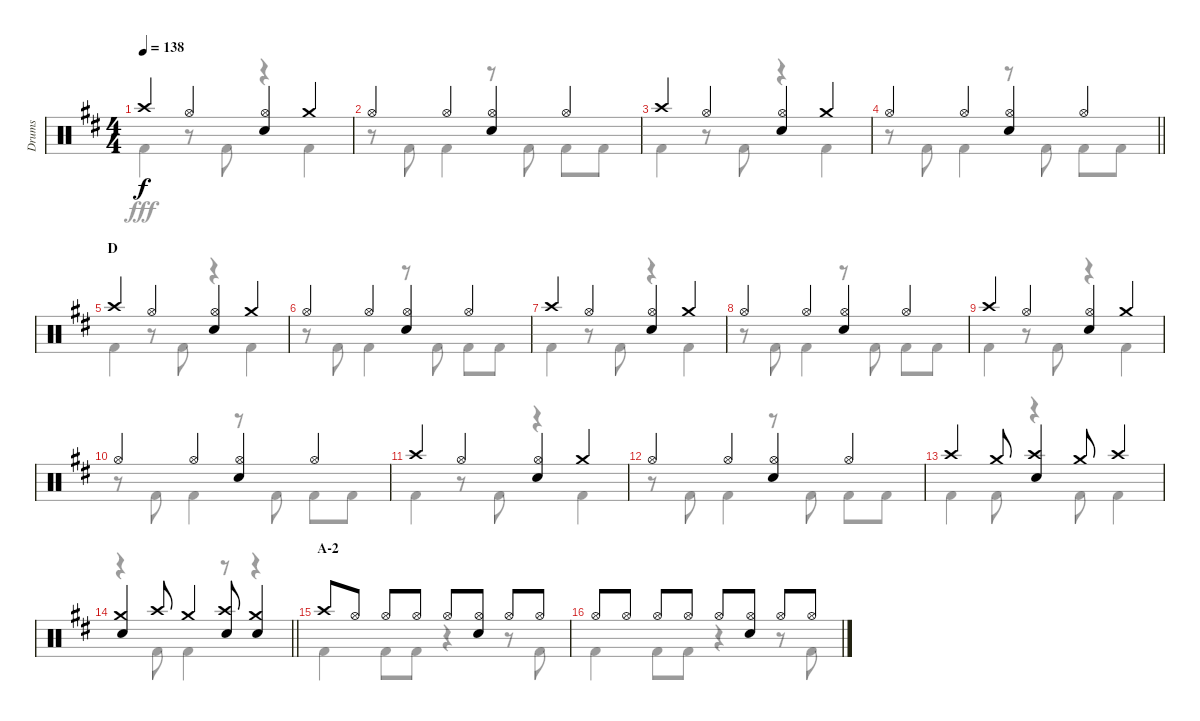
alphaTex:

\track ("Drums" "Drums") {instrument percussion}
\staff {score}
\articulation defaults
\voice
\ts (4 4)
\tempo 138
\clef neutral
\ks d "Crash high (hit)".4{dy f} "Hi-Hat (open)".4
("Hi-Hat (open)" "Snare (hit) 2").4 "Crash medium (hit)".4 |
"Hi-Hat (open)".4 "Hi-Hat (open)".4 ("Hi-Hat (open)" "Snare (hit) 2").4 "Hi-Hat (open)".4 |
"Crash high (hit)".4 "Hi-Hat (open)".4 ("Hi-Hat (open)" "Snare (hit) 2").4 "Crash medium (hit)".4 |
\barLineRight lightlight "Hi-Hat (open)".4 "Hi-Hat (open)".4
("Hi-Hat (open)" "Snare (hit) 2").4 "Hi-Hat (open)".4 |
\section ("" "D")
"Crash high (hit)".4 "Hi-Hat (open)".4 ("Hi-Hat (open)" "Snare (hit) 2").4 "Crash medium (hit)".4 |
"Hi-Hat (open)".4 "Hi-Hat (open)".4 ("Hi-Hat (open)" "Snare (hit) 2").4 "Hi-Hat (open)".4 |
"Crash high (hit)".4 "Hi-Hat (open)".4 ("Hi-Hat (open)" "Snare (hit) 2").4 "Crash medium (hit)".4 |
"Hi-Hat (open)".4 "Hi-Hat (open)".4 ("Hi-Hat (open)" "Snare (hit) 2").4 "Hi-Hat (open)".4 |
"Crash high (hit)".4 "Hi-Hat (open)".4 ("Hi-Hat (open)" "Snare (hit) 2").4 "Crash medium (hit)".4 |
"Hi-Hat (open)".4 "Hi-Hat (open)".4 ("Hi-Hat (open)" "Snare (hit) 2").4 "Hi-Hat (open)".4 |
"Crash high (hit)".4 "Hi-Hat (open)".4 ("Hi-Hat (open)" "Snare (hit) 2").4 "Crash medium (hit)".4 |
"Hi-Hat (open)".4 "Hi-Hat (open)".4 ("Hi-Hat (open)" "Snare (hit) 2").4 "Hi-Hat (open)".4 |
"Crash high (hit)".4 "Crash medium (hit)".8 ("Crash high (hit)" "Snare (hit) 2").4 "Crash medium (hit)".8 "Crash high (hit)".4 |
\barLineRight lightlight
("Crash medium (hit)" "Snare (hit) 2").4 "Crash high (hit)".8 "Crash medium (hit)".4 ("Crash high (hit)" "Snare (hit) 2").8 ("Crash medium (hit)" "Snare (hit) 2").4 |
\section ("" "A-2")
"Crash high (hit)".8 "Hi-Hat (open)".8 "Hi-Hat (open)".8 "Hi-Hat (open)".8 "Hi-Hat (open)".8 ("Hi-Hat (open)" "Snare (hit) 2").8 "Hi-Hat (open)".8 "Hi-Hat (open)".8 |
"Hi-Hat (open)".8 "Hi-Hat (open)".8 "Hi-Hat (open)".8 "Hi-Hat (open)".8 "Hi-Hat (open)".8 ("Hi-Hat (open)" "Snare (hit) 2").8 "Hi-Hat (open)".8 "Hi-Hat (open)".8
\voice
\clef neutral
\ottava regular
\simile none
\ks d "Kick (hit) 2".4{dy fff}
r.8 "Kick (hit) 2".8 r.4 "Kick (hit) 2".4 |
r.8 "Kick (hit) 2".8 "Kick (hit) 2".4 r.8 "Kick (hit) 2".8 "Kick (hit) 2".8 "Kick (hit) 2".8 |
"Kick (hit) 2".4 r.8 "Kick (hit) 2".8 r.4 "Kick (hit) 2".4 |
\barLineRight lightlight
r.8 "Kick (hit) 2".8 "Kick (hit) 2".4 r.8 "Kick (hit) 2".8 "Kick (hit) 2".8 "Kick (hit) 2".8 |
"Kick (hit) 2".4 r.8 "Kick (hit) 2".8 r.4 "Kick (hit) 2".4 |
r.8 "Kick (hit) 2".8 "Kick (hit) 2".4 r.8 "Kick (hit) 2".8 "Kick (hit) 2".8 "Kick (hit) 2".8 |
"Kick (hit) 2".4 r.8 "Kick (hit) 2".8 r.4 "Kick (hit) 2".4 |
r.8 "Kick (hit) 2".8 "Kick (hit) 2".4 r.8 "Kick (hit) 2".8 "Kick (hit) 2".8 "Kick (hit) 2".8 |
"Kick (hit) 2".4 r.8 "Kick (hit) 2".8 r.4 "Kick (hit) 2".4 |
r.8 "Kick (hit) 2".8 "Kick (hit) 2".4 r.8 "Kick (hit) 2".8 "Kick (hit) 2".8 "Kick (hit) 2".8 |
"Kick (hit) 2".4 r.8 "Kick (hit) 2".8 r.4 "Kick (hit) 2".4 |
r.8 "Kick (hit) 2".8 "Kick (hit) 2".4 r.8 "Kick (hit) 2".8 "Kick (hit) 2".8 "Kick (hit) 2".8 |
"Kick (hit) 2".4 "Kick (hit) 2".8 r.4 "Kick (hit) 2".8 "Kick (hit) 2".4 |
\barLineRight lightlight
r.4 "Kick (hit) 2".8 "Kick (hit) 2".4 r.8 r.4 |
"Kick (hit) 2".4 "Kick (hit) 2".8 "Kick (hit) 2".8 r.4 r.8 "Kick (hit) 2".8 |
"Kick (hit) 2".4 "Kick (hit) 2".8 "Kick (hit) 2".8 r.4 r.8 "Kick (hit) 2".8
